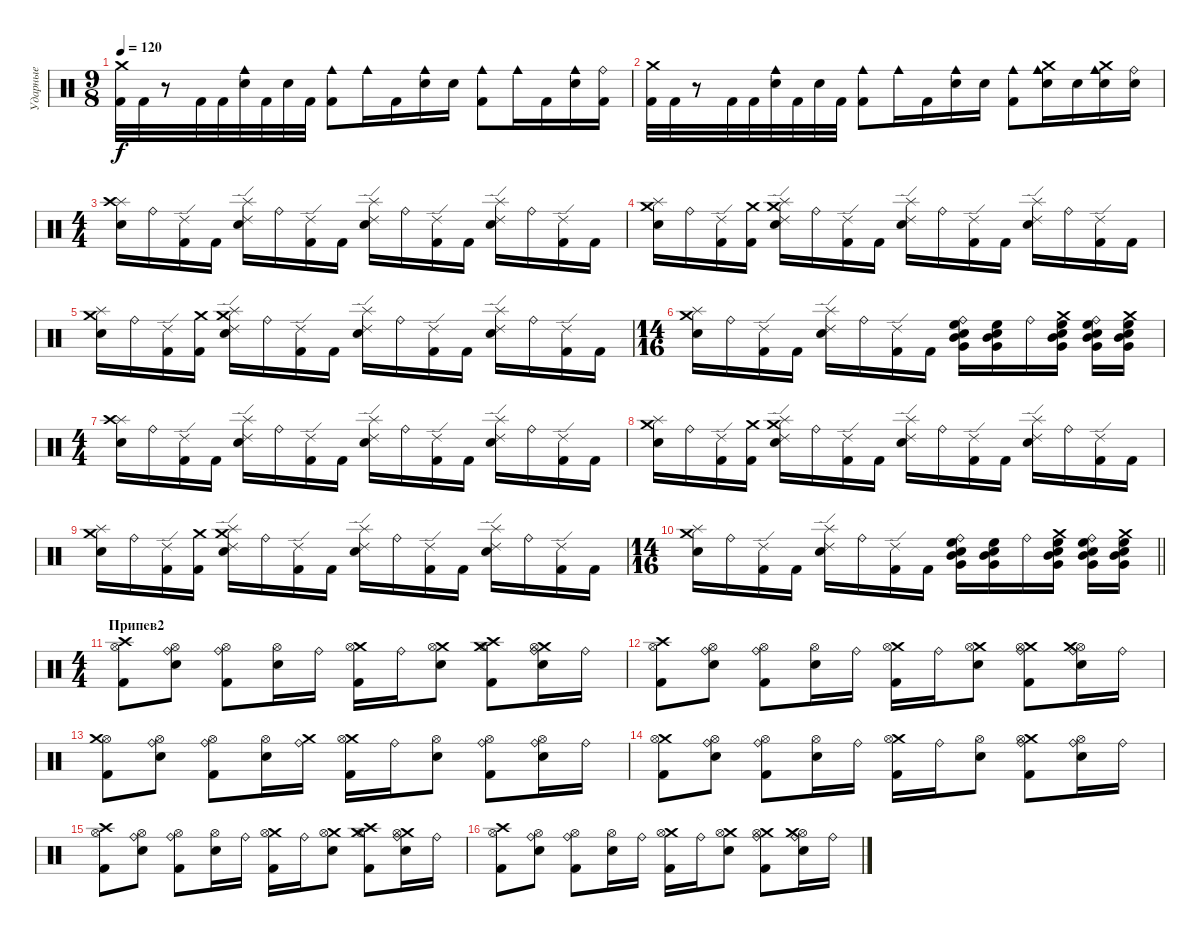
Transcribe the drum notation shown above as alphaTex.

\track ("Ударные" "Ударные") {instrument percussion}
\staff {score}
\articulation defaults
\ts (9 8)
\tempo 120
\clef neutral
\ks c
("Crash medium (hit)" "Kick (hit) 2").32{dy f} "Kick (hit) 2".32 r.8 "Kick (hit) 2".32 "Kick (hit) 2".32 ("Electric Snare (hit)" "Cowbell medium (hit)").32 "Kick (hit) 2".32 "Electric Snare (hit)".32 "Kick (hit) 2".32 ("Kick (hit) 2" "Cowbell medium (hit)").8 "Cowbell medium (hit)".16 "Kick (hit) 2".16 ("Electric Snare (hit)" "Cowbell medium (hit)").16 "Electric Snare (hit)".16 ("Kick (hit) 2" "Cowbell medium (hit)").8 "Cowbell medium (hit)".16 "Kick (hit) 2".16 ("Electric Snare (hit)" "Cowbell medium (hit)").16 ("Ride (bell)" "Kick (hit) 2").16 |
("Crash medium (hit)" "Kick (hit) 2").32 "Kick (hit) 2".32 r.8 "Kick (hit) 2".32 "Kick (hit) 2".32 ("Electric Snare (hit)" "Cowbell medium (hit)").32 "Kick (hit) 2".32 "Electric Snare (hit)".32 "Kick (hit) 2".32 ("Kick (hit) 2" "Cowbell medium (hit)").8 "Cowbell medium (hit)".16 "Kick (hit) 2".16 ("Electric Snare (hit)" "Cowbell medium (hit)").16 "Electric Snare (hit)".16 ("Kick (hit) 2" "Cowbell medium (hit)").8 ("Crash medium (hit)" "Electric Snare (hit)" "Cowbell medium (hit)").16 "Electric Snare (hit)".16 ("Electric Snare (hit)" "Crash medium (hit)" "Cowbell medium (hit)").16 ("Electric Snare (hit)" "Ride (bell)").16 |
\ts (4 4)
("Splash (hit)" "Crash high (hit)" "Electric Snare (hit)").16 "Ride (bell)".16 ("Ride (edge) 2" "Kick (hit) 2").16 "Kick (hit) 2".16 ("Splash (hit)" "Ride (edge) 2" "Electric Snare (hit)").16 "Ride (bell)".16 ("Ride (edge) 2" "Kick (hit) 2").16 "Kick (hit) 2".16 ("Splash (hit)" "Ride (edge) 2" "Electric Snare (hit)").16 "Ride (bell)".16 ("Ride (edge) 2" "Kick (hit) 2").16 "Kick (hit) 2".16 ("Splash (hit)" "Ride (edge) 2" "Electric Snare (hit)").16 "Ride (bell)".16 ("Ride (edge) 2" "Kick (hit) 2").16 "Kick (hit) 2".16 |
("Crash medium (hit)" "Splash (hit)" "Electric Snare (hit)").16 "Ride (bell)".16 ("Ride (edge) 2" "Kick (hit) 2").16 ("Crash medium (hit)" "Kick (hit) 2").16 ("Crash medium (hit)" "Splash (hit)" "Ride (edge) 2" "Electric Snare (hit)").16 "Ride (bell)".16 ("Ride (edge) 2" "Kick (hit) 2").16 "Kick (hit) 2".16 ("Splash (hit)" "Ride (edge) 2" "Electric Snare (hit)").16 "Ride (bell)".16 ("Ride (edge) 2" "Kick (hit) 2").16 "Kick (hit) 2".16 ("Splash (hit)" "Ride (edge) 2" "Electric Snare (hit)").16 "Ride (bell)".16 ("Ride (edge) 2" "Kick (hit) 2").16 "Kick (hit) 2".16 |
("Crash medium (hit)" "Splash (hit)" "Electric Snare (hit)").16 "Ride (bell)".16 ("Ride (edge) 2" "Kick (hit) 2").16 ("Crash medium (hit)" "Kick (hit) 2").16 ("Crash medium (hit)" "Splash (hit)" "Ride (edge) 2" "Electric Snare (hit)").16 "Ride (bell)".16 ("Ride (edge) 2" "Kick (hit) 2").16 "Kick (hit) 2".16 ("Splash (hit)" "Ride (edge) 2" "Electric Snare (hit)").16 "Ride (bell)".16 ("Ride (edge) 2" "Kick (hit) 2").16 "Kick (hit) 2".16 ("Splash (hit)" "Ride (edge) 2" "Electric Snare (hit)").16 "Ride (bell)".16 ("Ride (edge) 2" "Kick (hit) 2").16 "Kick (hit) 2".16 |
\ts (14 16)
("Splash (hit)" "Crash medium (hit)" "Electric Snare (hit)").16 "Ride (bell)".16 ("Ride (edge) 2" "Kick (hit) 2").16 "Kick (hit) 2".16 ("Splash (hit)" "Ride (edge) 2" "Electric Snare (hit)").16 "Ride (bell)".16 ("Ride (edge) 2" "Kick (hit) 2").16 "Kick (hit) 2".16 ("Ride (bell)" "High Floor Tom (hit)" "Mid Tom (hit)" "Very Low Tom (hit)" "Electric Snare (hit)").16 ("Electric Snare (hit)" "Very Low Tom (hit)" "Mid Tom (hit)" "High Floor Tom (hit)").16 "Ride (bell)".16 ("Crash medium (hit)" "Electric Snare (hit)" "Very Low Tom (hit)" "Mid Tom (hit)" "High Floor Tom (hit)").16 ("Ride (bell)" "Electric Snare (hit)" "Very Low Tom (hit)" "Mid Tom (hit)" "High Floor Tom (hit)").16 ("Crash medium (hit)" "Electric Snare (hit)" "Very Low Tom (hit)" "Mid Tom (hit)" "High Floor Tom (hit)").16 |
\ts (4 4)
("Splash (hit)" "Crash high (hit)" "Electric Snare (hit)").16 "Ride (bell)".16 ("Ride (edge) 2" "Kick (hit) 2").16 "Kick (hit) 2".16 ("Splash (hit)" "Ride (edge) 2" "Electric Snare (hit)").16 "Ride (bell)".16 ("Ride (edge) 2" "Kick (hit) 2").16 "Kick (hit) 2".16 ("Splash (hit)" "Ride (edge) 2" "Electric Snare (hit)").16 "Ride (bell)".16 ("Ride (edge) 2" "Kick (hit) 2").16 "Kick (hit) 2".16 ("Splash (hit)" "Ride (edge) 2" "Electric Snare (hit)").16 "Ride (bell)".16 ("Ride (edge) 2" "Kick (hit) 2").16 "Kick (hit) 2".16 |
("Crash medium (hit)" "Splash (hit)" "Electric Snare (hit)").16 "Ride (bell)".16 ("Ride (edge) 2" "Kick (hit) 2").16 ("Crash medium (hit)" "Kick (hit) 2").16 ("Crash medium (hit)" "Splash (hit)" "Ride (edge) 2" "Electric Snare (hit)").16 "Ride (bell)".16 ("Ride (edge) 2" "Kick (hit) 2").16 "Kick (hit) 2".16 ("Splash (hit)" "Ride (edge) 2" "Electric Snare (hit)").16 "Ride (bell)".16 ("Ride (edge) 2" "Kick (hit) 2").16 "Kick (hit) 2".16 ("Splash (hit)" "Ride (edge) 2" "Electric Snare (hit)").16 "Ride (bell)".16 ("Ride (edge) 2" "Kick (hit) 2").16 "Kick (hit) 2".16 |
("Crash medium (hit)" "Splash (hit)" "Electric Snare (hit)").16 "Ride (bell)".16 ("Ride (edge) 2" "Kick (hit) 2").16 ("Crash medium (hit)" "Kick (hit) 2").16 ("Crash medium (hit)" "Splash (hit)" "Ride (edge) 2" "Electric Snare (hit)").16 "Ride (bell)".16 ("Ride (edge) 2" "Kick (hit) 2").16 "Kick (hit) 2".16 ("Splash (hit)" "Ride (edge) 2" "Electric Snare (hit)").16 "Ride (bell)".16 ("Ride (edge) 2" "Kick (hit) 2").16 "Kick (hit) 2".16 ("Splash (hit)" "Ride (edge) 2" "Electric Snare (hit)").16 "Ride (bell)".16 ("Ride (edge) 2" "Kick (hit) 2").16 "Kick (hit) 2".16 |
\ts (14 16)
\barLineRight lightlight
("Splash (hit)" "Crash medium (hit)" "Electric Snare (hit)").16 "Ride (bell)".16 ("Ride (edge) 2" "Kick (hit) 2").16 "Kick (hit) 2".16 ("Splash (hit)" "Ride (edge) 2" "Electric Snare (hit)").16 "Ride (bell)".16 ("Ride (edge) 2" "Kick (hit) 2").16 "Kick (hit) 2".16 ("Ride (bell)" "High Floor Tom (hit)" "Mid Tom (hit)" "Very Low Tom (hit)" "Electric Snare (hit)").16 ("Electric Snare (hit)" "Very Low Tom (hit)" "Mid Tom (hit)" "High Floor Tom (hit)").16 "Ride (bell)".16 ("Crash medium (hit)" "Electric Snare (hit)" "Very Low Tom (hit)" "Mid Tom (hit)" "High Floor Tom (hit)").16 ("Ride (bell)" "Electric Snare (hit)" "Very Low Tom (hit)" "Mid Tom (hit)" "High Floor Tom (hit)").16 ("Crash medium (hit)" "Electric Snare (hit)" "Very Low Tom (hit)" "Mid Tom (hit)" "High Floor Tom (hit)").16 |
\ts (4 4)
\section ("" "Припев2")
("Crash high (hit)" "Hi-Hat (open)" "Kick (hit) 2").8 ("Ride (bell)" "Hi-Hat (open)" "Electric Snare (hit)").8 ("Ride (bell)" "Hi-Hat (open)" "Kick (hit) 2").8 ("Hi-Hat (open)" "Electric Snare (hit)").16 "Ride (bell)".16 ("Kick (hit) 2" "Crash medium (hit)" "Hi-Hat (open)").16 "Ride (bell)".16 ("Electric Snare (hit)" "Crash medium (hit)" "Hi-Hat (open)").8 ("Kick (hit) 2" "Crash medium (hit)" "Crash high (hit)" "Hi-Hat (open)").8 ("Electric Snare (hit)" "Crash medium (hit)" "Ride (bell)" "Hi-Hat (open)").16 "Ride (bell)".16 |
("Hi-Hat (open)" "Crash high (hit)" "Kick (hit) 2").8 ("Hi-Hat (open)" "Ride (bell)" "Electric Snare (hit)").8 ("Hi-Hat (open)" "Ride (bell)" "Kick (hit) 2").8 ("Hi-Hat (open)" "Electric Snare (hit)").16 "Ride (bell)".16 ("Kick (hit) 2" "Crash medium (hit)" "Hi-Hat (open)").16 "Ride (bell)".16 ("Electric Snare (hit)" "Crash medium (hit)" "Hi-Hat (open)").8 ("Kick (hit) 2" "Crash medium (hit)" "Ride (bell)" "Hi-Hat (open)").8 ("Electric Snare (hit)" "Hi-Hat (open)" "Crash medium (hit)" "Ride (bell)").16 "Ride (bell)".16 |
("Hi-Hat (open)" "Crash medium (hit)" "Kick (hit) 2").8 ("Hi-Hat (open)" "Electric Snare (hit)" "Ride (bell)").8 ("Hi-Hat (open)" "Kick (hit) 2" "Ride (bell)").8 ("Hi-Hat (open)" "Electric Snare (hit)").16 ("Crash medium (hit)" "Ride (bell)").16 ("Kick (hit) 2" "Crash medium (hit)" "Hi-Hat (open)").16 "Ride (bell)".16 ("Electric Snare (hit)" "Hi-Hat (open)").8 ("Kick (hit) 2" "Hi-Hat (open)" "Ride (bell)").8 ("Electric Snare (hit)" "Hi-Hat (open)" "Ride (bell)").16 "Ride (bell)".16 |
("Crash medium (hit)" "Kick (hit) 2" "Hi-Hat (open)").8 ("Electric Snare (hit)" "Hi-Hat (open)" "Ride (bell)").8 ("Kick (hit) 2" "Hi-Hat (open)" "Ride (bell)").8 ("Electric Snare (hit)" "Hi-Hat (open)").16 "Ride (bell)".16 ("Kick (hit) 2" "Crash medium (hit)" "Hi-Hat (open)").16 "Ride (bell)".16 ("Electric Snare (hit)" "Hi-Hat (open)").8 ("Kick (hit) 2" "Crash medium (hit)" "Hi-Hat (open)" "Ride (bell)").8 ("Electric Snare (hit)" "Hi-Hat (open)" "Ride (bell)").16 "Ride (bell)".16 |
("Crash high (hit)" "Hi-Hat (open)" "Kick (hit) 2").8 ("Ride (bell)" "Hi-Hat (open)" "Electric Snare (hit)").8 ("Ride (bell)" "Hi-Hat (open)" "Kick (hit) 2").8 ("Hi-Hat (open)" "Electric Snare (hit)").16 "Ride (bell)".16 ("Kick (hit) 2" "Crash medium (hit)" "Hi-Hat (open)").16 "Ride (bell)".16 ("Electric Snare (hit)" "Crash medium (hit)" "Hi-Hat (open)").8 ("Kick (hit) 2" "Crash medium (hit)" "Crash high (hit)" "Hi-Hat (open)").8 ("Electric Snare (hit)" "Crash medium (hit)" "Ride (bell)" "Hi-Hat (open)").16 "Ride (bell)".16 |
("Crash high (hit)" "Kick (hit) 2" "Hi-Hat (open)").8 ("Ride (bell)" "Electric Snare (hit)" "Hi-Hat (open)").8 ("Ride (bell)" "Kick (hit) 2" "Hi-Hat (open)").8 ("Electric Snare (hit)" "Hi-Hat (open)").16 "Ride (bell)".16 ("Kick (hit) 2" "Crash medium (hit)" "Hi-Hat (open)").16 "Ride (bell)".16 ("Electric Snare (hit)" "Crash medium (hit)" "Hi-Hat (open)").8 ("Kick (hit) 2" "Crash medium (hit)" "Ride (bell)" "Hi-Hat (open)").8 ("Electric Snare (hit)" "Hi-Hat (open)" "Crash medium (hit)" "Ride (bell)").16 "Ride (bell)".16
